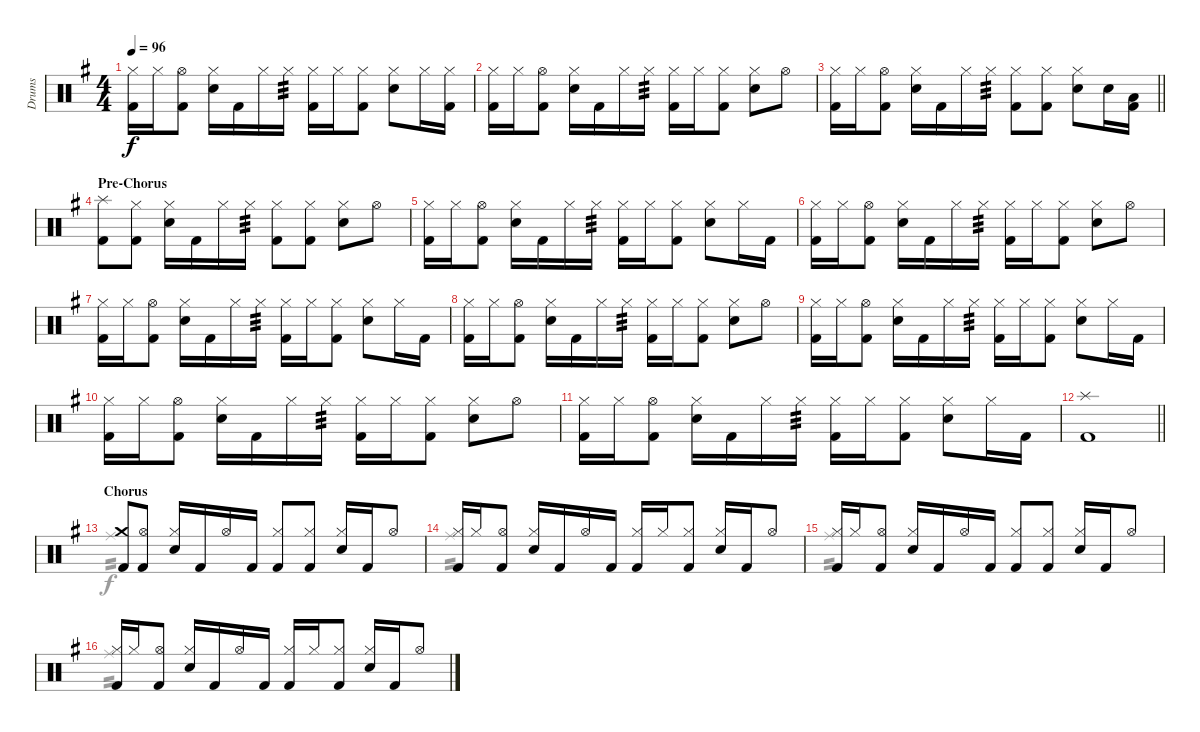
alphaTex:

\track ("Drums" "Drums") {instrument percussion}
\staff {score}
\articulation defaults
\voice
\ts (4 4)
\tempo 96
\clef neutral
\ks g
("Hi-Hat (closed)" "Kick (hit) 2").16{dy f} "Hi-Hat (closed)".16 ("Hi-Hat (open)" "Kick (hit) 2").8 ("Hi-Hat (closed)" "Electric Snare (hit)").16 "Kick (hit) 2".16 "Hi-Hat (closed)".16 "Hi-Hat (closed)".16{tp 3} ("Hi-Hat (closed)" "Kick (hit) 2").16 "Hi-Hat (closed)".16 ("Hi-Hat (closed)" "Kick (hit) 2").8 ("Hi-Hat (closed)" "Electric Snare (hit)").8 "Hi-Hat (closed)".16 ("Hi-Hat (closed)" "Kick (hit) 2").16 |
("Hi-Hat (closed)" "Kick (hit) 2").16 "Hi-Hat (closed)".16 ("Hi-Hat (open)" "Kick (hit) 2").8 ("Hi-Hat (closed)" "Electric Snare (hit)").16 "Kick (hit) 2".16 "Hi-Hat (closed)".16 "Hi-Hat (closed)".16{tp 3} ("Hi-Hat (closed)" "Kick (hit) 2").16 "Hi-Hat (closed)".16 ("Hi-Hat (closed)" "Kick (hit) 2").8 ("Hi-Hat (closed)" "Electric Snare (hit)").8 "Hi-Hat (open)".8 |
\barLineRight lightlight
("Hi-Hat (closed)" "Kick (hit) 2").16 "Hi-Hat (closed)".16 ("Hi-Hat (open)" "Kick (hit) 2").8 ("Hi-Hat (closed)" "Electric Snare (hit)").16 "Kick (hit) 2".16 "Hi-Hat (closed)".16 "Hi-Hat (closed)".16{tp 3} ("Hi-Hat (closed)" "Kick (hit) 2").8 ("Hi-Hat (closed)" "Kick (hit) 2").8 ("Hi-Hat (closed)" "Electric Snare (hit)").8 "Electric Snare (hit)".16 ("Low Tom (hit)" "Kick (hit) 2").16 |
\section ("" "Pre-Chorus")
("Splash (hit)" "Kick (hit) 2").8 ("Hi-Hat (closed)" "Kick (hit) 2").8 ("Hi-Hat (closed)" "Electric Snare (hit)").16 "Kick (hit) 2".16 "Hi-Hat (closed)".16 "Hi-Hat (closed)".16{tp 3} ("Hi-Hat (closed)" "Kick (hit) 2").8 ("Hi-Hat (closed)" "Kick (hit) 2").8 ("Hi-Hat (closed)" "Electric Snare (hit)").8 "Hi-Hat (open)".8 |
("Hi-Hat (closed)" "Kick (hit) 2").16 "Hi-Hat (closed)".16 ("Hi-Hat (open)" "Kick (hit) 2").8 ("Hi-Hat (closed)" "Electric Snare (hit)").16 "Kick (hit) 2".16 "Hi-Hat (closed)".16 "Hi-Hat (closed)".16{tp 3} ("Hi-Hat (closed)" "Kick (hit) 2").16 "Hi-Hat (closed)".16 ("Hi-Hat (closed)" "Kick (hit) 2").8 ("Hi-Hat (closed)" "Electric Snare (hit)").8 "Hi-Hat (closed)".16 "Kick (hit) 2".16 |
("Hi-Hat (closed)" "Kick (hit) 2").16 "Hi-Hat (closed)".16 ("Hi-Hat (open)" "Kick (hit) 2").8 ("Hi-Hat (closed)" "Electric Snare (hit)").16 "Kick (hit) 2".16 "Hi-Hat (closed)".16 "Hi-Hat (closed)".16{tp 3} ("Hi-Hat (closed)" "Kick (hit) 2").16 "Hi-Hat (closed)".16 ("Hi-Hat (closed)" "Kick (hit) 2").8 ("Hi-Hat (closed)" "Electric Snare (hit)").8 "Hi-Hat (open)".8 |
("Hi-Hat (closed)" "Kick (hit) 2").16 "Hi-Hat (closed)".16 ("Hi-Hat (open)" "Kick (hit) 2").8 ("Hi-Hat (closed)" "Electric Snare (hit)").16 "Kick (hit) 2".16 "Hi-Hat (closed)".16 "Hi-Hat (closed)".16{tp 3} ("Hi-Hat (closed)" "Kick (hit) 2").16 "Hi-Hat (closed)".16 ("Hi-Hat (closed)" "Kick (hit) 2").8 ("Hi-Hat (closed)" "Electric Snare (hit)").8 "Hi-Hat (closed)".16 "Kick (hit) 2".16 |
("Hi-Hat (closed)" "Kick (hit) 2").16 "Hi-Hat (closed)".16 ("Hi-Hat (open)" "Kick (hit) 2").8 ("Hi-Hat (closed)" "Electric Snare (hit)").16 "Kick (hit) 2".16 "Hi-Hat (closed)".16 "Hi-Hat (closed)".16{tp 3} ("Hi-Hat (closed)" "Kick (hit) 2").16 "Hi-Hat (closed)".16 ("Hi-Hat (closed)" "Kick (hit) 2").8 ("Hi-Hat (closed)" "Electric Snare (hit)").8 "Hi-Hat (open)".8 |
("Hi-Hat (closed)" "Kick (hit) 2").16 "Hi-Hat (closed)".16 ("Hi-Hat (open)" "Kick (hit) 2").8 ("Hi-Hat (closed)" "Electric Snare (hit)").16 "Kick (hit) 2".16 "Hi-Hat (closed)".16 "Hi-Hat (closed)".16{tp 3} ("Hi-Hat (closed)" "Kick (hit) 2").16 "Hi-Hat (closed)".16 ("Hi-Hat (closed)" "Kick (hit) 2").8 ("Hi-Hat (closed)" "Electric Snare (hit)").8 "Hi-Hat (closed)".16 "Kick (hit) 2".16 |
("Hi-Hat (closed)" "Kick (hit) 2").16 "Hi-Hat (closed)".16 ("Hi-Hat (open)" "Kick (hit) 2").8 ("Hi-Hat (closed)" "Electric Snare (hit)").16 "Kick (hit) 2".16 "Hi-Hat (closed)".16 "Hi-Hat (closed)".16{tp 3} ("Hi-Hat (closed)" "Kick (hit) 2").16 "Hi-Hat (closed)".16 ("Hi-Hat (closed)" "Kick (hit) 2").8 ("Hi-Hat (closed)" "Electric Snare (hit)").8 "Hi-Hat (open)".8 |
("Hi-Hat (closed)" "Kick (hit) 2").16 "Hi-Hat (closed)".16 ("Hi-Hat (open)" "Kick (hit) 2").8 ("Hi-Hat (closed)" "Electric Snare (hit)").16 "Kick (hit) 2".16 "Hi-Hat (closed)".16 "Hi-Hat (closed)".16{tp 3} ("Hi-Hat (closed)" "Kick (hit) 2").16 "Hi-Hat (closed)".16 ("Hi-Hat (closed)" "Kick (hit) 2").8 ("Hi-Hat (closed)" "Electric Snare (hit)").8 "Hi-Hat (closed)".16 "Kick (hit) 2".16 |
\barLineRight lightlight
("Splash (hit)" "Kick (hit) 2").1 |
\section ("" "Chorus")
("Crash medium (hit)" "Kick (hit) 2").8 ("Hi-Hat (open)" "Kick (hit) 2").8 ("Hi-Hat (closed)" "Electric Snare (hit)").16 "Kick (hit) 2".16 "Hi-Hat (open)".16 "Kick (hit) 2".16 ("Hi-Hat (closed)" "Kick (hit) 2").8 ("Hi-Hat (closed)" "Kick (hit) 2").8 ("Hi-Hat (closed)" "Electric Snare (hit)").16 "Kick (hit) 2".16 "Hi-Hat (open)".8 |
("Hi-Hat (closed)" "Kick (hit) 2").16 "Hi-Hat (closed)".16 ("Hi-Hat (open)" "Kick (hit) 2").8 ("Hi-Hat (closed)" "Electric Snare (hit)").16 "Kick (hit) 2".16 "Hi-Hat (open)".16 "Kick (hit) 2".16 ("Hi-Hat (closed)" "Kick (hit) 2").16 "Hi-Hat (closed)".16 ("Hi-Hat (closed)" "Kick (hit) 2").8 ("Hi-Hat (closed)" "Electric Snare (hit)").16 "Kick (hit) 2".16 "Hi-Hat (open)".8 |
("Hi-Hat (closed)" "Kick (hit) 2").16 "Hi-Hat (closed)".16 ("Hi-Hat (open)" "Kick (hit) 2").8 ("Hi-Hat (closed)" "Electric Snare (hit)").16 "Kick (hit) 2".16 "Hi-Hat (open)".16 "Kick (hit) 2".16 ("Hi-Hat (closed)" "Kick (hit) 2").8 ("Hi-Hat (closed)" "Kick (hit) 2").8 ("Hi-Hat (closed)" "Electric Snare (hit)").16 "Kick (hit) 2".16 "Hi-Hat (open)".8 |
("Hi-Hat (closed)" "Kick (hit) 2").16 "Hi-Hat (closed)".16 ("Hi-Hat (open)" "Kick (hit) 2").8 ("Hi-Hat (closed)" "Electric Snare (hit)").16 "Kick (hit) 2".16 "Hi-Hat (open)".16 "Kick (hit) 2".16 ("Hi-Hat (closed)" "Kick (hit) 2").16 "Hi-Hat (closed)".16 ("Hi-Hat (closed)" "Kick (hit) 2").8 ("Hi-Hat (closed)" "Electric Snare (hit)").16 "Kick (hit) 2".16 "Hi-Hat (open)".8
\voice
\clef neutral
\ottava regular
\simile none
\ks g
|
|
\barLineRight lightlight
|
|
|
|
|
|
|
|
|
\barLineRight lightlight
|
"Ride (middle)".1{tp 2} |
"Ride (middle)".1{tp 2} |
"Ride (middle)".1{tp 2} |
"Ride (middle)".1{tp 2}
